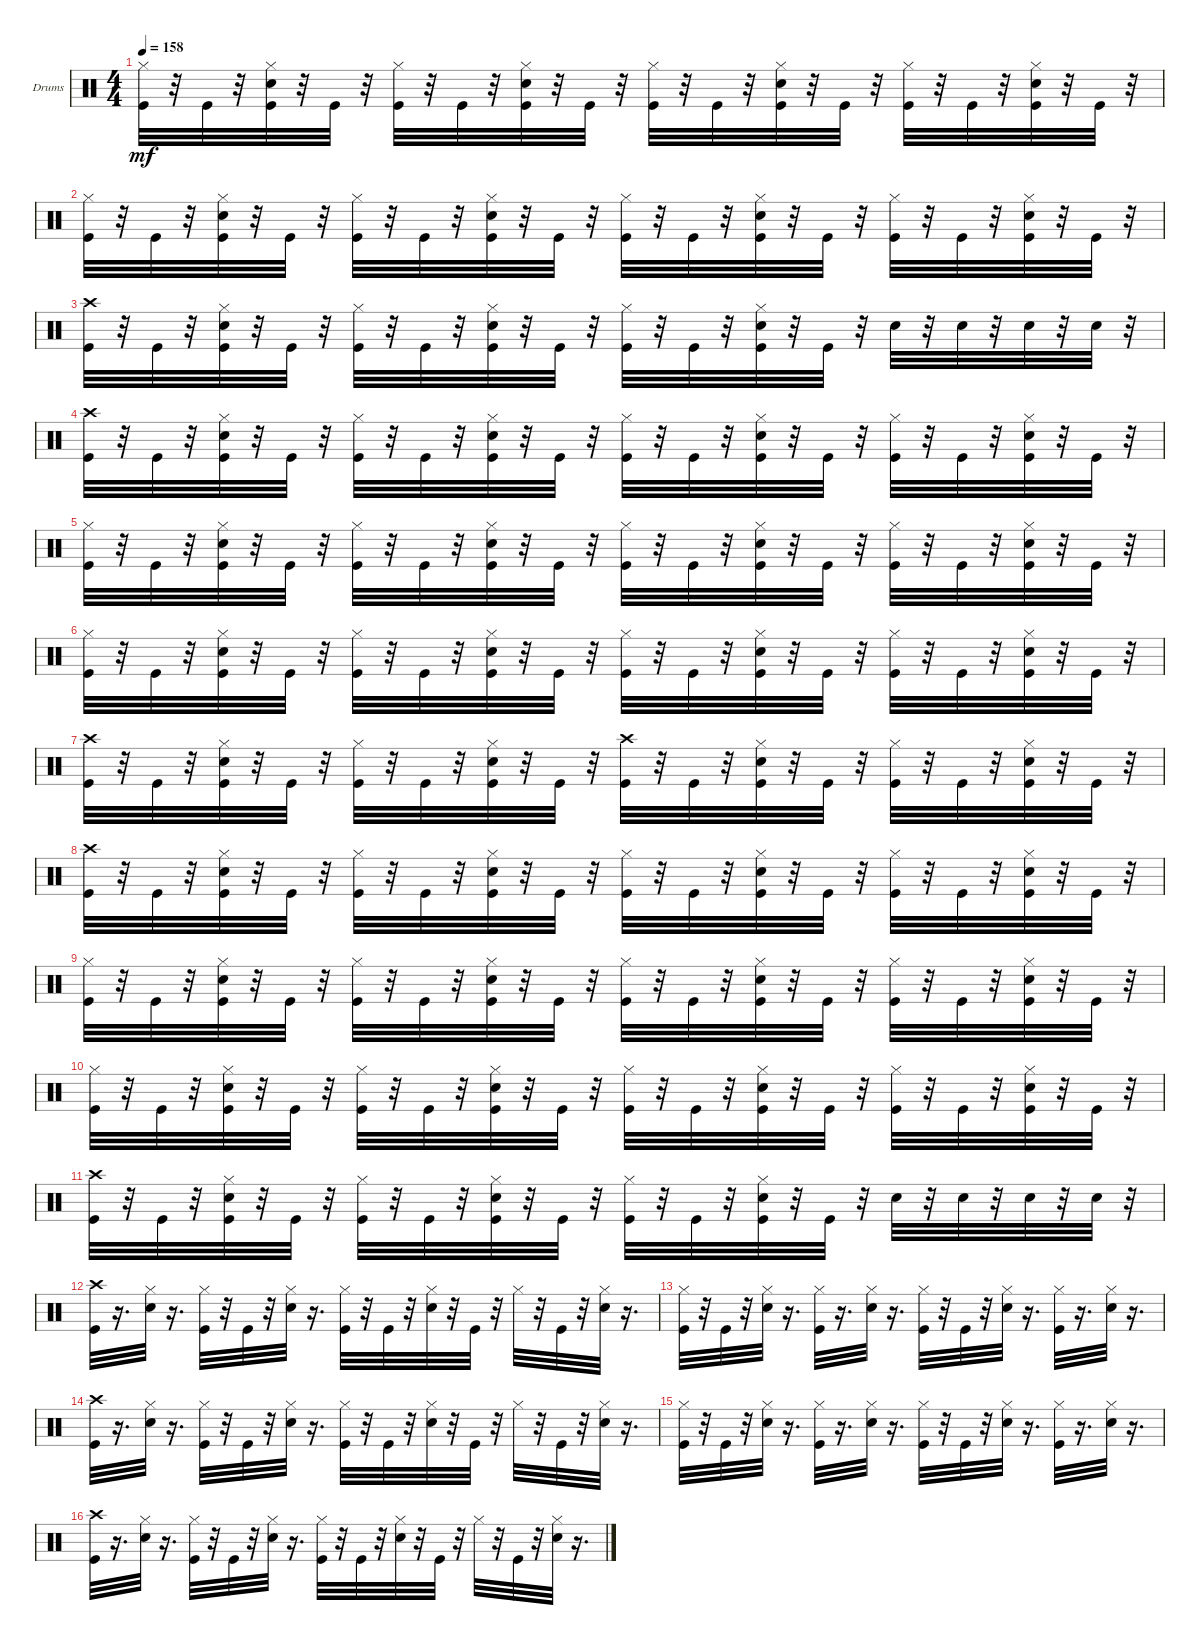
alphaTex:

\bracketExtendMode groupsimilarinstruments
\firstSystemTrackNameOrientation horizontal
\otherSystemsTrackNameOrientation horizontal
\track ("" "Drums") {instrument percussion}
\staff {score}
\articulation defaults
\ts (4 4)
\tempo 158
\clef neutral
\ks c
("Hi-Hat (closed)" "Kick (hit)").32{dy mf} r.32 "Kick (hit)".32 r.32 ("Kick (hit)" "Snare (hit) 2" "Hi-Hat (closed)").32 r.32 "Kick (hit)".32 r.32 ("Kick (hit)" "Hi-Hat (closed)").32 r.32 "Kick (hit)".32 r.32 ("Kick (hit)" "Snare (hit) 2" "Hi-Hat (closed)").32 r.32 "Kick (hit)".32 r.32 ("Kick (hit)" "Hi-Hat (closed)").32 r.32 "Kick (hit)".32 r.32 ("Kick (hit)" "Snare (hit) 2" "Hi-Hat (closed)").32 r.32 "Kick (hit)".32 r.32 ("Kick (hit)" "Hi-Hat (closed)").32 r.32 "Kick (hit)".32 r.32 ("Kick (hit)" "Snare (hit) 2" "Hi-Hat (closed)").32 r.32 "Kick (hit)".32 r.32 |
("Hi-Hat (closed)" "Kick (hit)").32 r.32 "Kick (hit)".32 r.32 ("Kick (hit)" "Snare (hit) 2" "Hi-Hat (closed)").32 r.32 "Kick (hit)".32 r.32 ("Kick (hit)" "Hi-Hat (closed)").32 r.32 "Kick (hit)".32 r.32 ("Kick (hit)" "Snare (hit) 2" "Hi-Hat (closed)").32 r.32 "Kick (hit)".32 r.32 ("Kick (hit)" "Hi-Hat (closed)").32 r.32 "Kick (hit)".32 r.32 ("Kick (hit)" "Snare (hit) 2" "Hi-Hat (closed)").32 r.32 "Kick (hit)".32 r.32 ("Kick (hit)" "Hi-Hat (closed)").32 r.32 "Kick (hit)".32 r.32 ("Kick (hit)" "Snare (hit) 2" "Hi-Hat (closed)").32 r.32 "Kick (hit)".32 r.32 |
("Crash high (hit)" "Kick (hit)").32 r.32 "Kick (hit)".32 r.32 ("Kick (hit)" "Snare (hit) 2" "Hi-Hat (closed)").32 r.32 "Kick (hit)".32 r.32 ("Kick (hit)" "Hi-Hat (closed)").32 r.32 "Kick (hit)".32 r.32 ("Kick (hit)" "Snare (hit) 2" "Hi-Hat (closed)").32 r.32 "Kick (hit)".32 r.32 ("Hi-Hat (closed)" "Kick (hit)").32 r.32 "Kick (hit)".32 r.32 ("Kick (hit)" "Snare (hit) 2" "Hi-Hat (closed)").32 r.32 "Kick (hit)".32 r.32 "Snare (hit) 2".32 r.32 "Snare (hit) 2".32 r.32 "Snare (hit) 2".32 r.32 "Snare (hit) 2".32 r.32 |
("Crash high (hit)" "Kick (hit)").32 r.32 "Kick (hit)".32 r.32 ("Kick (hit)" "Snare (hit) 2" "Hi-Hat (closed)").32 r.32 "Kick (hit)".32 r.32 ("Kick (hit)" "Hi-Hat (closed)").32 r.32 "Kick (hit)".32 r.32 ("Kick (hit)" "Snare (hit) 2" "Hi-Hat (closed)").32 r.32 "Kick (hit)".32 r.32 ("Kick (hit)" "Hi-Hat (closed)").32 r.32 "Kick (hit)".32 r.32 ("Kick (hit)" "Snare (hit) 2" "Hi-Hat (closed)").32 r.32 "Kick (hit)".32 r.32 ("Kick (hit)" "Hi-Hat (closed)").32 r.32 "Kick (hit)".32 r.32 ("Kick (hit)" "Snare (hit) 2" "Hi-Hat (closed)").32 r.32 "Kick (hit)".32 r.32 |
("Hi-Hat (closed)" "Kick (hit)").32 r.32 "Kick (hit)".32 r.32 ("Kick (hit)" "Snare (hit) 2" "Hi-Hat (closed)").32 r.32 "Kick (hit)".32 r.32 ("Kick (hit)" "Hi-Hat (closed)").32 r.32 "Kick (hit)".32 r.32 ("Kick (hit)" "Snare (hit) 2" "Hi-Hat (closed)").32 r.32 "Kick (hit)".32 r.32 ("Kick (hit)" "Hi-Hat (closed)").32 r.32 "Kick (hit)".32 r.32 ("Kick (hit)" "Snare (hit) 2" "Hi-Hat (closed)").32 r.32 "Kick (hit)".32 r.32 ("Kick (hit)" "Hi-Hat (closed)").32 r.32 "Kick (hit)".32 r.32 ("Kick (hit)" "Snare (hit) 2" "Hi-Hat (closed)").32 r.32 "Kick (hit)".32 r.32 |
("Hi-Hat (closed)" "Kick (hit)").32 r.32 "Kick (hit)".32 r.32 ("Kick (hit)" "Snare (hit) 2" "Hi-Hat (closed)").32 r.32 "Kick (hit)".32 r.32 ("Kick (hit)" "Hi-Hat (closed)").32 r.32 "Kick (hit)".32 r.32 ("Kick (hit)" "Snare (hit) 2" "Hi-Hat (closed)").32 r.32 "Kick (hit)".32 r.32 ("Kick (hit)" "Hi-Hat (closed)").32 r.32 "Kick (hit)".32 r.32 ("Kick (hit)" "Snare (hit) 2" "Hi-Hat (closed)").32 r.32 "Kick (hit)".32 r.32 ("Kick (hit)" "Hi-Hat (closed)").32 r.32 "Kick (hit)".32 r.32 ("Kick (hit)" "Snare (hit) 2" "Hi-Hat (closed)").32 r.32 "Kick (hit)".32 r.32 |
("Crash high (hit)" "Kick (hit)").32 r.32 "Kick (hit)".32 r.32 ("Kick (hit)" "Snare (hit) 2" "Hi-Hat (closed)").32 r.32 "Kick (hit)".32 r.32 ("Kick (hit)" "Hi-Hat (closed)").32 r.32 "Kick (hit)".32 r.32 ("Kick (hit)" "Snare (hit) 2" "Hi-Hat (closed)").32 r.32 "Kick (hit)".32 r.32 ("Crash high (hit)" "Kick (hit)").32 r.32 "Kick (hit)".32 r.32 ("Kick (hit)" "Snare (hit) 2" "Hi-Hat (closed)").32 r.32 "Kick (hit)".32 r.32 ("Kick (hit)" "Hi-Hat (closed)").32 r.32 "Kick (hit)".32 r.32 ("Kick (hit)" "Snare (hit) 2" "Hi-Hat (closed)").32 r.32 "Kick (hit)".32 r.32 |
("Crash high (hit)" "Kick (hit)").32 r.32 "Kick (hit)".32 r.32 ("Kick (hit)" "Snare (hit) 2" "Hi-Hat (closed)").32 r.32 "Kick (hit)".32 r.32 ("Kick (hit)" "Hi-Hat (closed)").32 r.32 "Kick (hit)".32 r.32 ("Kick (hit)" "Snare (hit) 2" "Hi-Hat (closed)").32 r.32 "Kick (hit)".32 r.32 ("Kick (hit)" "Hi-Hat (closed)").32 r.32 "Kick (hit)".32 r.32 ("Kick (hit)" "Snare (hit) 2" "Hi-Hat (closed)").32 r.32 "Kick (hit)".32 r.32 ("Kick (hit)" "Hi-Hat (closed)").32 r.32 "Kick (hit)".32 r.32 ("Kick (hit)" "Snare (hit) 2" "Hi-Hat (closed)").32 r.32 "Kick (hit)".32 r.32 |
("Hi-Hat (closed)" "Kick (hit)").32 r.32 "Kick (hit)".32 r.32 ("Kick (hit)" "Snare (hit) 2" "Hi-Hat (closed)").32 r.32 "Kick (hit)".32 r.32 ("Kick (hit)" "Hi-Hat (closed)").32 r.32 "Kick (hit)".32 r.32 ("Kick (hit)" "Snare (hit) 2" "Hi-Hat (closed)").32 r.32 "Kick (hit)".32 r.32 ("Kick (hit)" "Hi-Hat (closed)").32 r.32 "Kick (hit)".32 r.32 ("Kick (hit)" "Snare (hit) 2" "Hi-Hat (closed)").32 r.32 "Kick (hit)".32 r.32 ("Kick (hit)" "Hi-Hat (closed)").32 r.32 "Kick (hit)".32 r.32 ("Kick (hit)" "Snare (hit) 2" "Hi-Hat (closed)").32 r.32 "Kick (hit)".32 r.32 |
("Hi-Hat (closed)" "Kick (hit)").32 r.32 "Kick (hit)".32 r.32 ("Kick (hit)" "Snare (hit) 2" "Hi-Hat (closed)").32 r.32 "Kick (hit)".32 r.32 ("Kick (hit)" "Hi-Hat (closed)").32 r.32 "Kick (hit)".32 r.32 ("Kick (hit)" "Snare (hit) 2" "Hi-Hat (closed)").32 r.32 "Kick (hit)".32 r.32 ("Kick (hit)" "Hi-Hat (closed)").32 r.32 "Kick (hit)".32 r.32 ("Kick (hit)" "Snare (hit) 2" "Hi-Hat (closed)").32 r.32 "Kick (hit)".32 r.32 ("Kick (hit)" "Hi-Hat (closed)").32 r.32 "Kick (hit)".32 r.32 ("Kick (hit)" "Snare (hit) 2" "Hi-Hat (closed)").32 r.32 "Kick (hit)".32 r.32 |
("Crash high (hit)" "Kick (hit)").32 r.32 "Kick (hit)".32 r.32 ("Kick (hit)" "Snare (hit) 2" "Hi-Hat (closed)").32 r.32 "Kick (hit)".32 r.32 ("Kick (hit)" "Hi-Hat (closed)").32 r.32 "Kick (hit)".32 r.32 ("Kick (hit)" "Snare (hit) 2" "Hi-Hat (closed)").32 r.32 "Kick (hit)".32 r.32 ("Hi-Hat (closed)" "Kick (hit)").32 r.32 "Kick (hit)".32 r.32 ("Kick (hit)" "Snare (hit) 2" "Hi-Hat (closed)").32 r.32 "Kick (hit)".32 r.32 "Snare (hit) 2".32 r.32 "Snare (hit) 2".32 r.32 "Snare (hit) 2".32 r.32 "Snare (hit) 2".32 r.32 |
("Kick (hit)" "Crash high (hit)").32 r.16{d} ("Snare (hit) 2" "Hi-Hat (closed)").32 r.16{d} ("Kick (hit)" "Hi-Hat (closed)").32 r.32 "Kick (hit)".32 r.32 ("Snare (hit) 2" "Hi-Hat (closed)").32 r.16{d} ("Kick (hit)" "Hi-Hat (closed)").32 r.32 "Kick (hit)".32 r.32 ("Snare (hit) 2" "Hi-Hat (closed)").32 r.32 "Kick (hit)".32 r.32 "Hi-Hat (closed)".32 r.32 "Kick (hit)".32 r.32 ("Snare (hit) 2" "Hi-Hat (closed)").32 r.16{d} |
("Hi-Hat (closed)" "Kick (hit)").32 r.32 "Kick (hit)".32 r.32 ("Snare (hit) 2" "Hi-Hat (closed)").32 r.16{d} ("Kick (hit)" "Hi-Hat (closed)").32 r.16{d} ("Snare (hit) 2" "Hi-Hat (closed)").32 r.16{d} ("Kick (hit)" "Hi-Hat (closed)").32 r.32 "Kick (hit)".32 r.32 ("Snare (hit) 2" "Hi-Hat (closed)").32 r.16{d} ("Kick (hit)" "Hi-Hat (closed)").32 r.16{d} ("Snare (hit) 2" "Hi-Hat (closed)").32 r.16{d} |
("Kick (hit)" "Crash high (hit)").32 r.16{d} ("Snare (hit) 2" "Hi-Hat (closed)").32 r.16{d} ("Kick (hit)" "Hi-Hat (closed)").32 r.32 "Kick (hit)".32 r.32 ("Snare (hit) 2" "Hi-Hat (closed)").32 r.16{d} ("Kick (hit)" "Hi-Hat (closed)").32 r.32 "Kick (hit)".32 r.32 ("Snare (hit) 2" "Hi-Hat (closed)").32 r.32 "Kick (hit)".32 r.32 "Hi-Hat (closed)".32 r.32 "Kick (hit)".32 r.32 ("Snare (hit) 2" "Hi-Hat (closed)").32 r.16{d} |
("Hi-Hat (closed)" "Kick (hit)").32 r.32 "Kick (hit)".32 r.32 ("Snare (hit) 2" "Hi-Hat (closed)").32 r.16{d} ("Kick (hit)" "Hi-Hat (closed)").32 r.16{d} ("Snare (hit) 2" "Hi-Hat (closed)").32 r.16{d} ("Kick (hit)" "Hi-Hat (closed)").32 r.32 "Kick (hit)".32 r.32 ("Snare (hit) 2" "Hi-Hat (closed)").32 r.16{d} ("Kick (hit)" "Hi-Hat (closed)").32 r.16{d} ("Snare (hit) 2" "Hi-Hat (closed)").32 r.16{d} |
("Kick (hit)" "Crash high (hit)").32 r.16{d} ("Snare (hit) 2" "Hi-Hat (closed)").32 r.16{d} ("Kick (hit)" "Hi-Hat (closed)").32 r.32 "Kick (hit)".32 r.32 ("Snare (hit) 2" "Hi-Hat (closed)").32 r.16{d} ("Kick (hit)" "Hi-Hat (closed)").32 r.32 "Kick (hit)".32 r.32 ("Snare (hit) 2" "Hi-Hat (closed)").32 r.32 "Kick (hit)".32 r.32 "Hi-Hat (closed)".32 r.32 "Kick (hit)".32 r.32 ("Snare (hit) 2" "Hi-Hat (closed)").32 r.16{d}
